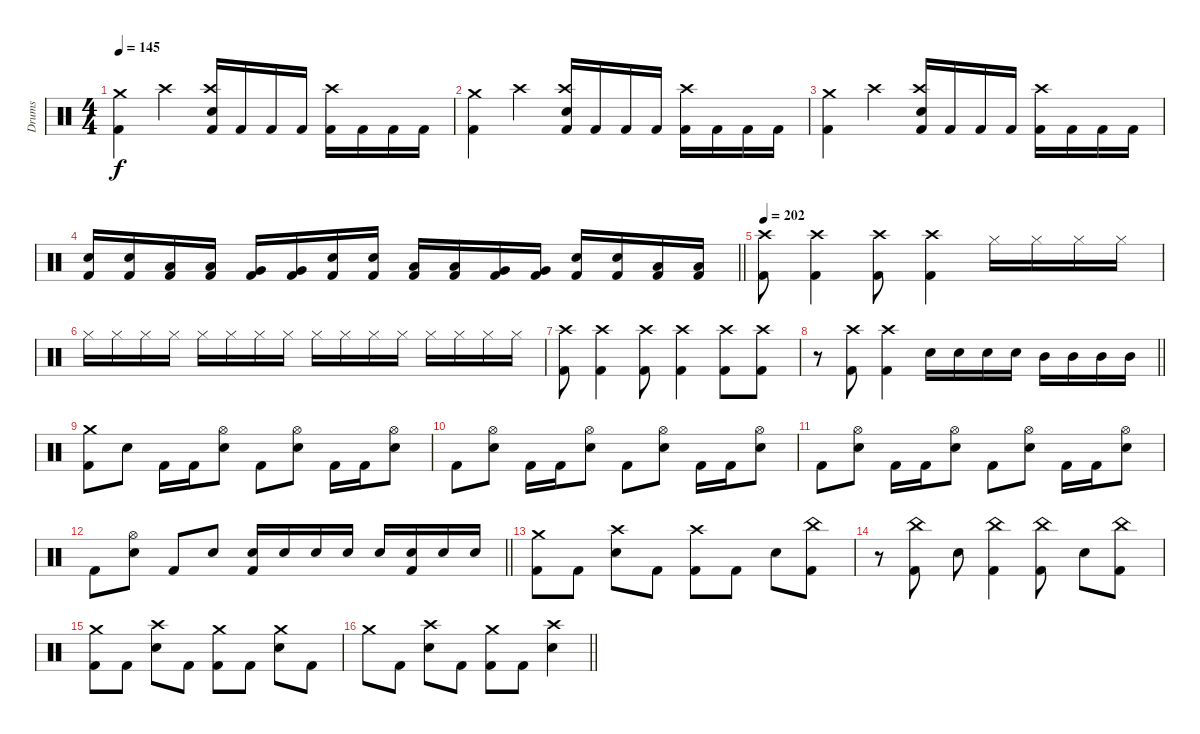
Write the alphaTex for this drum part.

\track ("Drums" "Drums") {instrument percussion}
\staff {score}
\articulation defaults
\ts (4 4)
\tempo 145
\clef neutral
\ks c
("Crash medium (hit)" "Kick (hit) 2").4{dy f} "Crash high (hit)".4 ("Crash high (hit)" "Electric Snare (hit)" "Kick (hit) 2").16 "Kick (hit) 2".16 "Kick (hit) 2".16 "Kick (hit) 2".16 ("Crash high (hit)" "Kick (hit) 2").16 "Kick (hit) 2".16 "Kick (hit) 2".16 "Kick (hit) 2".16 |
("Crash medium (hit)" "Kick (hit) 2").4 "Crash high (hit)".4 ("Crash high (hit)" "Electric Snare (hit)" "Kick (hit) 2").16 "Kick (hit) 2".16 "Kick (hit) 2".16 "Kick (hit) 2".16 ("Crash high (hit)" "Kick (hit) 2").16 "Kick (hit) 2".16 "Kick (hit) 2".16 "Kick (hit) 2".16 |
("Crash medium (hit)" "Kick (hit) 2").4 "Crash high (hit)".4 ("Crash high (hit)" "Electric Snare (hit)" "Kick (hit) 2").16 "Kick (hit) 2".16 "Kick (hit) 2".16 "Kick (hit) 2".16 ("Crash high (hit)" "Kick (hit) 2").16 "Kick (hit) 2".16 "Kick (hit) 2".16 "Kick (hit) 2".16 |
\barLineRight lightlight
("Electric Snare (hit)" "Kick (hit) 2").16 ("Electric Snare (hit)" "Kick (hit) 2").16 ("Low Tom (hit)" "Kick (hit) 2").16 ("Low Tom (hit)" "Kick (hit) 2").16 ("Very Low Tom (hit)" "Kick (hit) 2").16 ("Very Low Tom (hit)" "Kick (hit) 2").16 ("Electric Snare (hit)" "Kick (hit) 2").16 ("Electric Snare (hit)" "Kick (hit) 2").16 ("Low Tom (hit)" "Kick (hit) 2").16 ("Low Tom (hit)" "Kick (hit) 2").16 ("Very Low Tom (hit)" "Kick (hit) 2").16 ("Very Low Tom (hit)" "Kick (hit) 2").16 ("Electric Snare (hit)" "Kick (hit) 2").16 ("Electric Snare (hit)" "Kick (hit) 2").16 ("Low Tom (hit)" "Kick (hit) 2").16 ("Low Tom (hit)" "Kick (hit) 2").16 |
\section ("" "")
\tempo 202
("Crash high (hit)" "Kick (hit) 2").8 ("Crash high (hit)" "Kick (hit) 2").4 ("Crash high (hit)" "Kick (hit) 2").8 ("Crash high (hit)" "Kick (hit) 2").4 "Hi-Hat (closed)".16 "Hi-Hat (closed)".16 "Hi-Hat (closed)".16 "Hi-Hat (closed)".16 |
"Hi-Hat (closed)".16 "Hi-Hat (closed)".16 "Hi-Hat (closed)".16 "Hi-Hat (closed)".16 "Hi-Hat (closed)".16 "Hi-Hat (closed)".16 "Hi-Hat (closed)".16 "Hi-Hat (closed)".16 "Hi-Hat (closed)".16 "Hi-Hat (closed)".16 "Hi-Hat (closed)".16 "Hi-Hat (closed)".16 "Hi-Hat (closed)".16 "Hi-Hat (closed)".16 "Hi-Hat (closed)".16 "Hi-Hat (closed)".16 |
("Crash high (hit)" "Kick (hit) 2").8 ("Crash high (hit)" "Kick (hit) 2").4 ("Crash high (hit)" "Kick (hit) 2").8 ("Crash high (hit)" "Kick (hit) 2").4 ("Crash high (hit)" "Kick (hit) 2").8 ("Crash high (hit)" "Kick (hit) 2").8 |
\barLineRight lightlight
r.8 ("Crash high (hit)" "Kick (hit) 2").8 ("Crash high (hit)" "Kick (hit) 2").4 "Electric Snare (hit)".16 "Electric Snare (hit)".16 "Electric Snare (hit)".16 "Electric Snare (hit)".16 "Mid Tom (hit)".16 "Mid Tom (hit)".16 "Mid Tom (hit)".16 "Mid Tom (hit)".16 |
\section ("" "")
("Crash medium (hit)" "Kick (hit) 2").8 "Electric Snare (hit)".8 "Kick (hit) 2".16 "Kick (hit) 2".16 ("Hi-Hat (open)" "Electric Snare (hit)").8 "Kick (hit) 2".8 ("Hi-Hat (open)" "Electric Snare (hit)").8 "Kick (hit) 2".16 "Kick (hit) 2".16 ("Hi-Hat (open)" "Electric Snare (hit)").8 |
"Kick (hit) 2".8 ("Hi-Hat (open)" "Electric Snare (hit)").8 "Kick (hit) 2".16 "Kick (hit) 2".16 ("Hi-Hat (open)" "Electric Snare (hit)").8 "Kick (hit) 2".8 ("Hi-Hat (open)" "Electric Snare (hit)").8 "Kick (hit) 2".16 "Kick (hit) 2".16 ("Hi-Hat (open)" "Electric Snare (hit)").8 |
"Kick (hit) 2".8 ("Hi-Hat (open)" "Electric Snare (hit)").8 "Kick (hit) 2".16 "Kick (hit) 2".16 ("Hi-Hat (open)" "Electric Snare (hit)").8 "Kick (hit) 2".8 ("Hi-Hat (open)" "Electric Snare (hit)").8 "Kick (hit) 2".16 "Kick (hit) 2".16 ("Hi-Hat (open)" "Electric Snare (hit)").8 |
\barLineRight lightlight "Kick (hit) 2".8
("Hi-Hat (open)" "Electric Snare (hit)").8 "Kick (hit) 2".8 "Electric Snare (hit)".8 ("Electric Snare (hit)" "Kick (hit) 2").16 "Electric Snare (hit)".16 "Electric Snare (hit)".16 "Electric Snare (hit)".16 "Electric Snare (hit)".16 ("Electric Snare (hit)" "Kick (hit) 2").16 "Electric Snare (hit)".16 "Electric Snare (hit)".16 |
\section ("" "")
("Crash medium (hit)" "Kick (hit) 2").8 "Kick (hit) 2".8 ("Crash high (hit)" "Electric Snare (hit)").8 "Kick (hit) 2".8 ("Crash high (hit)" "Kick (hit) 2").8 "Kick (hit) 2".8 "Electric Snare (hit)".8 ("China (hit)" "Kick (hit) 2").8 |
r.8 ("China (hit)" "Kick (hit) 2").8 "Electric Snare (hit)".8 ("China (hit)" "Kick (hit) 2").4 ("China (hit)" "Kick (hit) 2").8 "Electric Snare (hit)".8 ("China (hit)" "Kick (hit) 2").8 |
("Crash medium (hit)" "Kick (hit) 2").8 "Kick (hit) 2".8 ("Crash high (hit)" "Electric Snare (hit)").8 "Kick (hit) 2".8 ("Crash medium (hit)" "Kick (hit) 2").8 "Kick (hit) 2".8 ("Crash medium (hit)" "Electric Snare (hit)").8 "Kick (hit) 2".8 |
\barLineRight lightlight "Crash medium (hit)".8 "Kick (hit) 2".8
("Crash high (hit)" "Electric Snare (hit)").8 "Kick (hit) 2".8 ("Crash medium (hit)" "Kick (hit) 2").8 "Kick (hit) 2".8 ("Crash high (hit)" "Electric Snare (hit)").4
